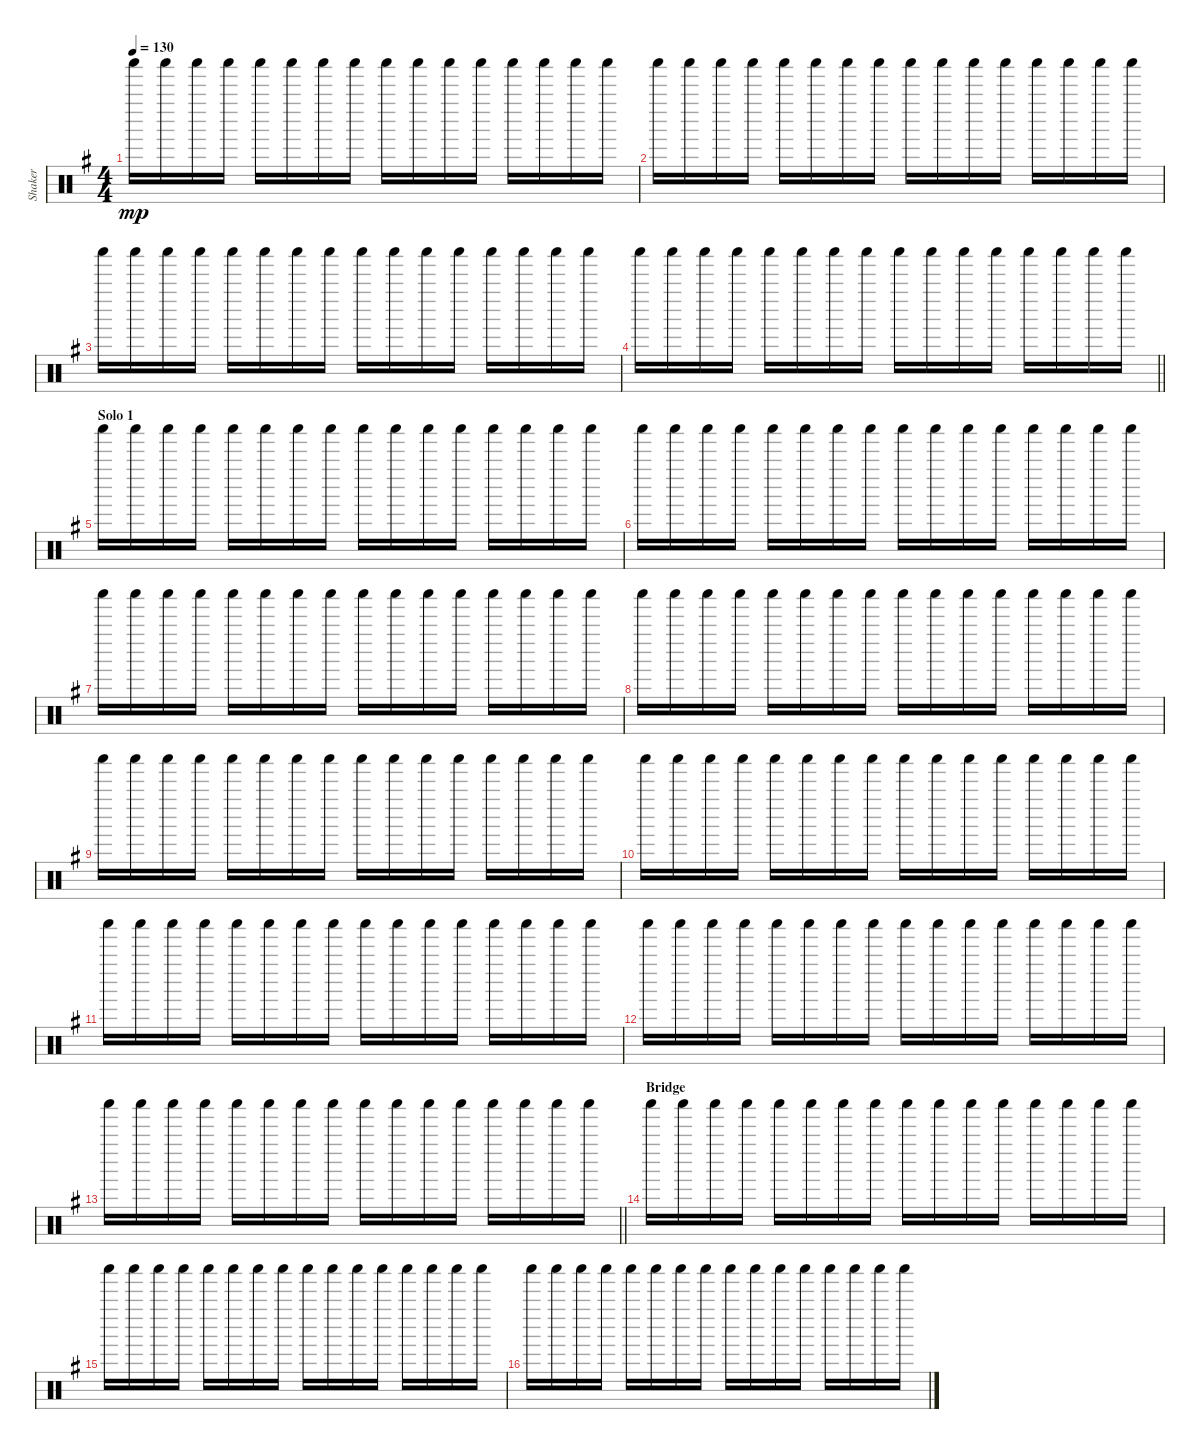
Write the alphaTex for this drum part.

\track ("Shaker" "Shaker") {instrument percussion}
\staff {score}
\articulation defaults
\ts (4 4)
\tempo 130
\clef neutral
\ks g "Shaker (hit)".16{dy mp} "Shaker (hit)".16 "Shaker (hit)".16 "Shaker (hit)".16 "Shaker (hit)".16 "Shaker (hit)".16 "Shaker (hit)".16 "Shaker (hit)".16 "Shaker (hit)".16 "Shaker (hit)".16 "Shaker (hit)".16 "Shaker (hit)".16 "Shaker (hit)".16 "Shaker (hit)".16 "Shaker (hit)".16 "Shaker (hit)".16
|
"Shaker (hit)".16 "Shaker (hit)".16 "Shaker (hit)".16 "Shaker (hit)".16 "Shaker (hit)".16 "Shaker (hit)".16 "Shaker (hit)".16 "Shaker (hit)".16 "Shaker (hit)".16 "Shaker (hit)".16 "Shaker (hit)".16 "Shaker (hit)".16 "Shaker (hit)".16 "Shaker (hit)".16 "Shaker (hit)".16 "Shaker (hit)".16 |
"Shaker (hit)".16 "Shaker (hit)".16 "Shaker (hit)".16 "Shaker (hit)".16 "Shaker (hit)".16 "Shaker (hit)".16 "Shaker (hit)".16 "Shaker (hit)".16 "Shaker (hit)".16 "Shaker (hit)".16 "Shaker (hit)".16 "Shaker (hit)".16 "Shaker (hit)".16 "Shaker (hit)".16 "Shaker (hit)".16 "Shaker (hit)".16 |
\barLineRight lightlight "Shaker (hit)".16 "Shaker (hit)".16 "Shaker (hit)".16 "Shaker (hit)".16 "Shaker (hit)".16 "Shaker (hit)".16 "Shaker (hit)".16 "Shaker (hit)".16 "Shaker (hit)".16 "Shaker (hit)".16 "Shaker (hit)".16 "Shaker (hit)".16 "Shaker (hit)".16 "Shaker (hit)".16 "Shaker (hit)".16 "Shaker (hit)".16
|
\section ("" "Solo 1")
"Shaker (hit)".16 "Shaker (hit)".16 "Shaker (hit)".16 "Shaker (hit)".16 "Shaker (hit)".16 "Shaker (hit)".16 "Shaker (hit)".16 "Shaker (hit)".16 "Shaker (hit)".16 "Shaker (hit)".16 "Shaker (hit)".16 "Shaker (hit)".16 "Shaker (hit)".16 "Shaker (hit)".16 "Shaker (hit)".16 "Shaker (hit)".16 |
"Shaker (hit)".16 "Shaker (hit)".16 "Shaker (hit)".16 "Shaker (hit)".16 "Shaker (hit)".16 "Shaker (hit)".16 "Shaker (hit)".16 "Shaker (hit)".16 "Shaker (hit)".16 "Shaker (hit)".16 "Shaker (hit)".16 "Shaker (hit)".16 "Shaker (hit)".16 "Shaker (hit)".16 "Shaker (hit)".16 "Shaker (hit)".16 |
"Shaker (hit)".16 "Shaker (hit)".16 "Shaker (hit)".16 "Shaker (hit)".16 "Shaker (hit)".16 "Shaker (hit)".16 "Shaker (hit)".16 "Shaker (hit)".16 "Shaker (hit)".16 "Shaker (hit)".16 "Shaker (hit)".16 "Shaker (hit)".16 "Shaker (hit)".16 "Shaker (hit)".16 "Shaker (hit)".16 "Shaker (hit)".16 |
"Shaker (hit)".16 "Shaker (hit)".16 "Shaker (hit)".16 "Shaker (hit)".16 "Shaker (hit)".16 "Shaker (hit)".16 "Shaker (hit)".16 "Shaker (hit)".16 "Shaker (hit)".16 "Shaker (hit)".16 "Shaker (hit)".16 "Shaker (hit)".16 "Shaker (hit)".16 "Shaker (hit)".16 "Shaker (hit)".16 "Shaker (hit)".16 |
"Shaker (hit)".16 "Shaker (hit)".16 "Shaker (hit)".16 "Shaker (hit)".16 "Shaker (hit)".16 "Shaker (hit)".16 "Shaker (hit)".16 "Shaker (hit)".16 "Shaker (hit)".16 "Shaker (hit)".16 "Shaker (hit)".16 "Shaker (hit)".16 "Shaker (hit)".16 "Shaker (hit)".16 "Shaker (hit)".16 "Shaker (hit)".16 |
"Shaker (hit)".16 "Shaker (hit)".16 "Shaker (hit)".16 "Shaker (hit)".16 "Shaker (hit)".16 "Shaker (hit)".16 "Shaker (hit)".16 "Shaker (hit)".16 "Shaker (hit)".16 "Shaker (hit)".16 "Shaker (hit)".16 "Shaker (hit)".16 "Shaker (hit)".16 "Shaker (hit)".16 "Shaker (hit)".16 "Shaker (hit)".16 |
"Shaker (hit)".16 "Shaker (hit)".16 "Shaker (hit)".16 "Shaker (hit)".16 "Shaker (hit)".16 "Shaker (hit)".16 "Shaker (hit)".16 "Shaker (hit)".16 "Shaker (hit)".16 "Shaker (hit)".16 "Shaker (hit)".16 "Shaker (hit)".16 "Shaker (hit)".16 "Shaker (hit)".16 "Shaker (hit)".16 "Shaker (hit)".16 |
"Shaker (hit)".16 "Shaker (hit)".16 "Shaker (hit)".16 "Shaker (hit)".16 "Shaker (hit)".16 "Shaker (hit)".16 "Shaker (hit)".16 "Shaker (hit)".16 "Shaker (hit)".16 "Shaker (hit)".16 "Shaker (hit)".16 "Shaker (hit)".16 "Shaker (hit)".16 "Shaker (hit)".16 "Shaker (hit)".16 "Shaker (hit)".16 |
\barLineRight lightlight "Shaker (hit)".16 "Shaker (hit)".16 "Shaker (hit)".16 "Shaker (hit)".16 "Shaker (hit)".16 "Shaker (hit)".16 "Shaker (hit)".16 "Shaker (hit)".16 "Shaker (hit)".16 "Shaker (hit)".16 "Shaker (hit)".16 "Shaker (hit)".16 "Shaker (hit)".16 "Shaker (hit)".16 "Shaker (hit)".16 "Shaker (hit)".16
|
\section ("" "Bridge")
"Shaker (hit)".16 "Shaker (hit)".16 "Shaker (hit)".16 "Shaker (hit)".16 "Shaker (hit)".16 "Shaker (hit)".16 "Shaker (hit)".16 "Shaker (hit)".16 "Shaker (hit)".16 "Shaker (hit)".16 "Shaker (hit)".16 "Shaker (hit)".16 "Shaker (hit)".16 "Shaker (hit)".16 "Shaker (hit)".16 "Shaker (hit)".16 |
"Shaker (hit)".16 "Shaker (hit)".16 "Shaker (hit)".16 "Shaker (hit)".16 "Shaker (hit)".16 "Shaker (hit)".16 "Shaker (hit)".16 "Shaker (hit)".16 "Shaker (hit)".16 "Shaker (hit)".16 "Shaker (hit)".16 "Shaker (hit)".16 "Shaker (hit)".16 "Shaker (hit)".16 "Shaker (hit)".16 "Shaker (hit)".16 |
"Shaker (hit)".16 "Shaker (hit)".16 "Shaker (hit)".16 "Shaker (hit)".16 "Shaker (hit)".16 "Shaker (hit)".16 "Shaker (hit)".16 "Shaker (hit)".16 "Shaker (hit)".16 "Shaker (hit)".16 "Shaker (hit)".16 "Shaker (hit)".16 "Shaker (hit)".16 "Shaker (hit)".16 "Shaker (hit)".16 "Shaker (hit)".16
